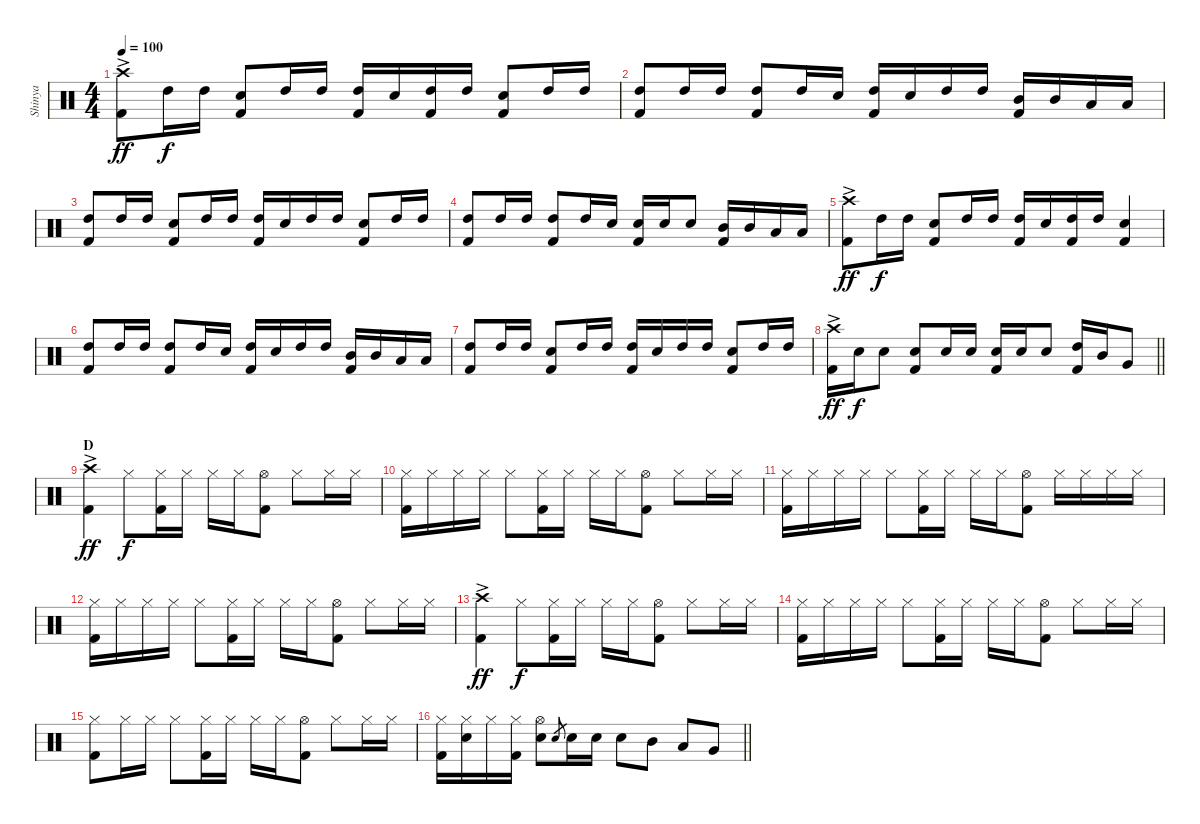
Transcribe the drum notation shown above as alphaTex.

\track ("Shinya" "Shinya") {instrument percussion}
\staff {score}
\articulation defaults
\ts (4 4)
\tempo 100
\clef neutral
\ks c
("Crash high (hit)"{ac} "Kick (hit) 2").8{dy ff} "High Tom (hit)".16{dy f} "High Tom (hit)".16 ("Snare (hit) 2" "Kick (hit) 2").8 "High Tom (hit)".16 "High Tom (hit)".16 ("High Tom (hit)" "Kick (hit) 2").16 "Snare (hit) 2".16 ("High Tom (hit)" "Kick (hit) 2").16 "High Tom (hit)".16 ("Snare (hit) 2" "Kick (hit) 2").8 "High Tom (hit)".16 "High Tom (hit)".16 |
("High Tom (hit)" "Kick (hit) 2").8 "High Tom (hit)".16 "High Tom (hit)".16 ("High Tom (hit)" "Kick (hit) 2").8 "High Tom (hit)".16 "Snare (hit) 2".16 ("High Tom (hit)" "Kick (hit) 2").16 "Snare (hit) 2".16 "High Tom (hit)".16 "High Tom (hit)".16 ("Mid Tom (hit)" "Kick (hit) 2").16 "Mid Tom (hit)".16 "Low Tom (hit)".16 "Low Tom (hit)".16 |
("High Tom (hit)" "Kick (hit) 2").8 "High Tom (hit)".16 "High Tom (hit)".16 ("Snare (hit) 2" "Kick (hit) 2").8 "High Tom (hit)".16 "High Tom (hit)".16 ("High Tom (hit)" "Kick (hit) 2").16 "Snare (hit) 2".16 "High Tom (hit)".16 "High Tom (hit)".16 ("Snare (hit) 2" "Kick (hit) 2").8 "High Tom (hit)".16 "High Tom (hit)".16 |
("High Tom (hit)" "Kick (hit) 2").8 "High Tom (hit)".16 "High Tom (hit)".16 ("High Tom (hit)" "Kick (hit) 2").8 "High Tom (hit)".16 "Snare (hit) 2".16 ("Snare (hit) 2" "Kick (hit) 2").16 "Snare (hit) 2".16 "Snare (hit) 2".8 ("Mid Tom (hit)" "Kick (hit) 2").16 "Mid Tom (hit)".16 "Low Tom (hit)".16 "Low Tom (hit)".16 |
("Crash high (hit)"{ac} "Kick (hit) 2").8{dy ff} "High Tom (hit)".16{dy f} "High Tom (hit)".16 ("Snare (hit) 2" "Kick (hit) 2").8 "High Tom (hit)".16 "High Tom (hit)".16 ("High Tom (hit)" "Kick (hit) 2").16 "Snare (hit) 2".16 ("High Tom (hit)" "Kick (hit) 2").16 "High Tom (hit)".16 ("Snare (hit) 2" "Kick (hit) 2").4 |
("High Tom (hit)" "Kick (hit) 2").8 "High Tom (hit)".16 "High Tom (hit)".16 ("High Tom (hit)" "Kick (hit) 2").8 "High Tom (hit)".16 "Snare (hit) 2".16 ("High Tom (hit)" "Kick (hit) 2").16 "Snare (hit) 2".16 "High Tom (hit)".16 "High Tom (hit)".16 ("Mid Tom (hit)" "Kick (hit) 2").16 "Mid Tom (hit)".16 "Low Tom (hit)".16 "Low Tom (hit)".16 |
("High Tom (hit)" "Kick (hit) 2").8 "High Tom (hit)".16 "High Tom (hit)".16 ("Snare (hit) 2" "Kick (hit) 2").8 "High Tom (hit)".16 "High Tom (hit)".16 ("High Tom (hit)" "Kick (hit) 2").16 "Snare (hit) 2".16 "High Tom (hit)".16 "High Tom (hit)".16 ("Snare (hit) 2" "Kick (hit) 2").8 "High Tom (hit)".16 "High Tom (hit)".16 |
\barLineRight lightlight
("Crash high (hit)"{ac} "Kick (hit) 2").16{dy ff} "Snare (hit) 2".16{dy f} "Snare (hit) 2".8 ("Snare (hit) 2" "Kick (hit) 2").8 "Snare (hit) 2".16 "Snare (hit) 2".16 ("Snare (hit) 2" "Kick (hit) 2").16 "Snare (hit) 2".16 "Snare (hit) 2".8 ("High Tom (hit)" "Kick (hit) 2").16 "Mid Tom (hit)".16 "Very Low Tom (hit)".8 |
\section ("" "D")
("Crash high (hit)"{ac} "Kick (hit) 2").4{dy ff} "Hi-Hat (closed)".8{dy f} ("Hi-Hat (closed)" "Kick (hit) 2").16 "Hi-Hat (closed)".16 "Hi-Hat (closed)".16 "Hi-Hat (closed)".16 ("Hi-Hat (open)" "Kick (hit) 2").8 "Hi-Hat (closed)".8 "Hi-Hat (closed)".16 "Hi-Hat (closed)".16 |
("Hi-Hat (closed)" "Kick (hit) 2").16 "Hi-Hat (closed)".16 "Hi-Hat (closed)".16 "Hi-Hat (closed)".16 "Hi-Hat (closed)".8 ("Hi-Hat (closed)" "Kick (hit) 2").16 "Hi-Hat (closed)".16 "Hi-Hat (closed)".16 "Hi-Hat (closed)".16 ("Hi-Hat (open)" "Kick (hit) 2").8 "Hi-Hat (closed)".8 "Hi-Hat (closed)".16 "Hi-Hat (closed)".16 |
("Hi-Hat (closed)" "Kick (hit) 2").16 "Hi-Hat (closed)".16 "Hi-Hat (closed)".16 "Hi-Hat (closed)".16 "Hi-Hat (closed)".8 ("Hi-Hat (closed)" "Kick (hit) 2").16 "Hi-Hat (closed)".16 "Hi-Hat (closed)".16 "Hi-Hat (closed)".16 ("Hi-Hat (open)" "Kick (hit) 2").8 "Hi-Hat (closed)".16 "Hi-Hat (closed)".16 "Hi-Hat (closed)".16 "Hi-Hat (closed)".16 |
("Hi-Hat (closed)" "Kick (hit) 2").16 "Hi-Hat (closed)".16 "Hi-Hat (closed)".16 "Hi-Hat (closed)".16 "Hi-Hat (closed)".8 ("Hi-Hat (closed)" "Kick (hit) 2").16 "Hi-Hat (closed)".16 "Hi-Hat (closed)".16 "Hi-Hat (closed)".16 ("Hi-Hat (open)" "Kick (hit) 2").8 "Hi-Hat (closed)".8 "Hi-Hat (closed)".16 "Hi-Hat (closed)".16 |
("Crash high (hit)"{ac} "Kick (hit) 2").4{dy ff} "Hi-Hat (closed)".8{dy f} ("Hi-Hat (closed)" "Kick (hit) 2").16 "Hi-Hat (closed)".16 "Hi-Hat (closed)".16 "Hi-Hat (closed)".16 ("Hi-Hat (open)" "Kick (hit) 2").8 "Hi-Hat (closed)".8 "Hi-Hat (closed)".16 "Hi-Hat (closed)".16 |
("Hi-Hat (closed)" "Kick (hit) 2").16 "Hi-Hat (closed)".16 "Hi-Hat (closed)".16 "Hi-Hat (closed)".16 "Hi-Hat (closed)".8 ("Hi-Hat (closed)" "Kick (hit) 2").16 "Hi-Hat (closed)".16 "Hi-Hat (closed)".16 "Hi-Hat (closed)".16 ("Hi-Hat (open)" "Kick (hit) 2").8 "Hi-Hat (closed)".8 "Hi-Hat (closed)".16 "Hi-Hat (closed)".16 |
("Hi-Hat (closed)" "Kick (hit) 2").8 "Hi-Hat (closed)".16 "Hi-Hat (closed)".16 "Hi-Hat (closed)".8 ("Hi-Hat (closed)" "Kick (hit) 2").16 "Hi-Hat (closed)".16 "Hi-Hat (closed)".16 "Hi-Hat (closed)".16 ("Hi-Hat (open)" "Kick (hit) 2").8 "Hi-Hat (closed)".8 "Hi-Hat (closed)".16 "Hi-Hat (closed)".16 |
\barLineRight lightlight
("Hi-Hat (closed)" "Kick (hit) 2").16 ("Hi-Hat (closed)" "Snare (hit) 2").16 "Hi-Hat (closed)".16 ("Hi-Hat (closed)" "Kick (hit) 2").16 ("Hi-Hat (open)" "Snare (hit) 2").8 "Snare (hit) 2".8{gr} "Snare (hit) 2".16 "Snare (hit) 2".16 "Snare (hit) 2".8 "Mid Tom (hit)".8 "Low Tom (hit)".8 "Very Low Tom (hit)".8
